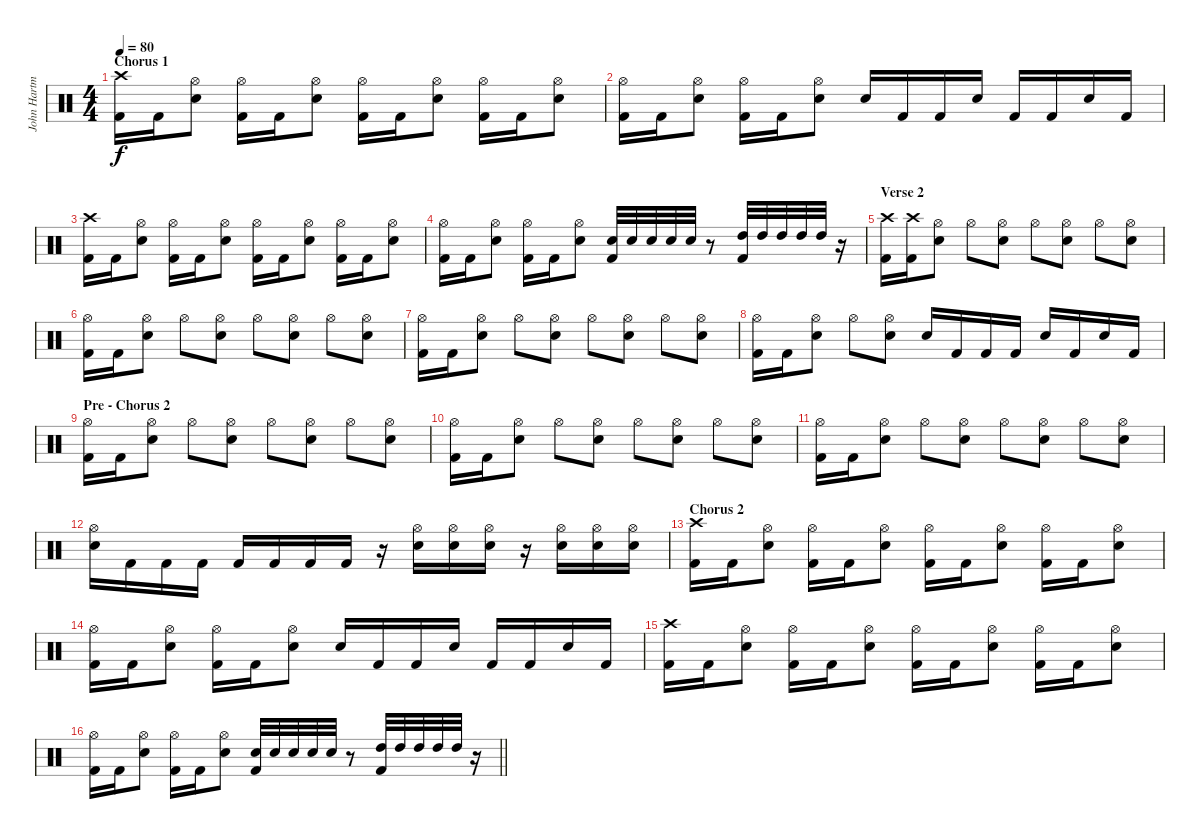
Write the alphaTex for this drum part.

\track ("John Hartman" "John Hartm") {instrument percussion}
\staff {score}
\articulation defaults
\ts (4 4)
\section ("" "Chorus 1")
\tempo 80
\clef neutral
\ks c
("Crash high (hit)" "Kick (hit) 2").16{dy f} "Kick (hit) 2".16 ("Hi-Hat (open)" "Electric Snare (hit)").8 ("Hi-Hat (open)" "Kick (hit) 2").16 "Kick (hit) 2".16 ("Hi-Hat (open)" "Electric Snare (hit)").8 ("Hi-Hat (open)" "Kick (hit) 2").16 "Kick (hit) 2".16 ("Hi-Hat (open)" "Electric Snare (hit)").8 ("Hi-Hat (open)" "Kick (hit) 2").16 "Kick (hit) 2".16 ("Hi-Hat (open)" "Electric Snare (hit)").8 |
("Hi-Hat (open)" "Kick (hit) 2").16 "Kick (hit) 2".16 ("Hi-Hat (open)" "Electric Snare (hit)").8 ("Hi-Hat (open)" "Kick (hit) 2").16 "Kick (hit) 2".16 ("Hi-Hat (open)" "Electric Snare (hit)").8 "Electric Snare (hit)".16 "Kick (hit) 2".16 "Kick (hit) 2".16 "Electric Snare (hit)".16 "Kick (hit) 2".16 "Kick (hit) 2".16 "Electric Snare (hit)".16 "Kick (hit) 2".16 |
("Crash high (hit)" "Kick (hit) 2").16 "Kick (hit) 2".16 ("Hi-Hat (open)" "Electric Snare (hit)").8 ("Hi-Hat (open)" "Kick (hit) 2").16 "Kick (hit) 2".16 ("Hi-Hat (open)" "Electric Snare (hit)").8 ("Hi-Hat (open)" "Kick (hit) 2").16 "Kick (hit) 2".16 ("Hi-Hat (open)" "Electric Snare (hit)").8 ("Hi-Hat (open)" "Kick (hit) 2").16 "Kick (hit) 2".16 ("Hi-Hat (open)" "Electric Snare (hit)").8 |
("Hi-Hat (open)" "Kick (hit) 2").16 "Kick (hit) 2".16 ("Hi-Hat (open)" "Electric Snare (hit)").8 ("Hi-Hat (open)" "Kick (hit) 2").16 "Kick (hit) 2".16 ("Hi-Hat (open)" "Electric Snare (hit)").8 ("Electric Snare (hit)" "Kick (hit) 2").32 "Electric Snare (hit)".32 "Electric Snare (hit)".32 "Electric Snare (hit)".32 "Electric Snare (hit)".32 r.8 ("Kick (hit) 2" "High Tom (hit)").32 "High Tom (hit)".32 "High Tom (hit)".32 "High Tom (hit)".32 "High Tom (hit)".32 r.16 |
\section ("" "Verse 2")
("Crash high (hit)" "Kick (hit) 2").16 ("Crash high (hit)" "Kick (hit) 2").16 ("Hi-Hat (open)" "Electric Snare (hit)").8 "Hi-Hat (open)".8 ("Hi-Hat (open)" "Electric Snare (hit)").8 "Hi-Hat (open)".8 ("Hi-Hat (open)" "Electric Snare (hit)").8 "Hi-Hat (open)".8 ("Hi-Hat (open)" "Electric Snare (hit)").8 |
("Hi-Hat (open)" "Kick (hit) 2").16 "Kick (hit) 2".16 ("Hi-Hat (open)" "Electric Snare (hit)").8 "Hi-Hat (open)".8 ("Hi-Hat (open)" "Electric Snare (hit)").8 "Hi-Hat (open)".8 ("Hi-Hat (open)" "Electric Snare (hit)").8 "Hi-Hat (open)".8 ("Hi-Hat (open)" "Electric Snare (hit)").8 |
("Hi-Hat (open)" "Kick (hit) 2").16 "Kick (hit) 2".16 ("Hi-Hat (open)" "Electric Snare (hit)").8 "Hi-Hat (open)".8 ("Hi-Hat (open)" "Electric Snare (hit)").8 "Hi-Hat (open)".8 ("Hi-Hat (open)" "Electric Snare (hit)").8 "Hi-Hat (open)".8 ("Hi-Hat (open)" "Electric Snare (hit)").8 |
("Hi-Hat (open)" "Kick (hit) 2").16 "Kick (hit) 2".16 ("Hi-Hat (open)" "Electric Snare (hit)").8 "Hi-Hat (open)".8 ("Hi-Hat (open)" "Electric Snare (hit)").8 "Electric Snare (hit)".16 "Kick (hit) 2".16 "Kick (hit) 2".16 "Kick (hit) 2".16 "Electric Snare (hit)".16 "Kick (hit) 2".16 "Electric Snare (hit)".16 "Kick (hit) 2".16 |
\section ("" "Pre - Chorus 2")
("Hi-Hat (open)" "Kick (hit) 2").16 "Kick (hit) 2".16 ("Hi-Hat (open)" "Electric Snare (hit)").8 "Hi-Hat (open)".8 ("Hi-Hat (open)" "Electric Snare (hit)").8 "Hi-Hat (open)".8 ("Hi-Hat (open)" "Electric Snare (hit)").8 "Hi-Hat (open)".8 ("Hi-Hat (open)" "Electric Snare (hit)").8 |
("Hi-Hat (open)" "Kick (hit) 2").16 "Kick (hit) 2".16 ("Hi-Hat (open)" "Electric Snare (hit)").8 "Hi-Hat (open)".8 ("Hi-Hat (open)" "Electric Snare (hit)").8 "Hi-Hat (open)".8 ("Hi-Hat (open)" "Electric Snare (hit)").8 "Hi-Hat (open)".8 ("Hi-Hat (open)" "Electric Snare (hit)").8 |
("Hi-Hat (open)" "Kick (hit) 2").16 "Kick (hit) 2".16 ("Hi-Hat (open)" "Electric Snare (hit)").8 "Hi-Hat (open)".8 ("Hi-Hat (open)" "Electric Snare (hit)").8 "Hi-Hat (open)".8 ("Hi-Hat (open)" "Electric Snare (hit)").8 "Hi-Hat (open)".8 ("Hi-Hat (open)" "Electric Snare (hit)").8 |
("Hi-Hat (open)" "Electric Snare (hit)").16 "Kick (hit) 2".16 "Kick (hit) 2".16 "Kick (hit) 2".16 "Kick (hit) 2".16 "Kick (hit) 2".16 "Kick (hit) 2".16 "Kick (hit) 2".16 r.16 ("Hi-Hat (open)" "Electric Snare (hit)").16 ("Hi-Hat (open)" "Electric Snare (hit)").16 ("Hi-Hat (open)" "Electric Snare (hit)").16 r.16 ("Hi-Hat (open)" "Electric Snare (hit)").16 ("Hi-Hat (open)" "Electric Snare (hit)").16 ("Hi-Hat (open)" "Electric Snare (hit)").16 |
\section ("" "Chorus 2")
("Crash high (hit)" "Kick (hit) 2").16 "Kick (hit) 2".16 ("Hi-Hat (open)" "Electric Snare (hit)").8 ("Hi-Hat (open)" "Kick (hit) 2").16 "Kick (hit) 2".16 ("Hi-Hat (open)" "Electric Snare (hit)").8 ("Hi-Hat (open)" "Kick (hit) 2").16 "Kick (hit) 2".16 ("Hi-Hat (open)" "Electric Snare (hit)").8 ("Hi-Hat (open)" "Kick (hit) 2").16 "Kick (hit) 2".16 ("Hi-Hat (open)" "Electric Snare (hit)").8 |
("Hi-Hat (open)" "Kick (hit) 2").16 "Kick (hit) 2".16 ("Hi-Hat (open)" "Electric Snare (hit)").8 ("Hi-Hat (open)" "Kick (hit) 2").16 "Kick (hit) 2".16 ("Hi-Hat (open)" "Electric Snare (hit)").8 "Electric Snare (hit)".16 "Kick (hit) 2".16 "Kick (hit) 2".16 "Electric Snare (hit)".16 "Kick (hit) 2".16 "Kick (hit) 2".16 "Electric Snare (hit)".16 "Kick (hit) 2".16 |
("Crash high (hit)" "Kick (hit) 2").16 "Kick (hit) 2".16 ("Hi-Hat (open)" "Electric Snare (hit)").8 ("Hi-Hat (open)" "Kick (hit) 2").16 "Kick (hit) 2".16 ("Hi-Hat (open)" "Electric Snare (hit)").8 ("Hi-Hat (open)" "Kick (hit) 2").16 "Kick (hit) 2".16 ("Hi-Hat (open)" "Electric Snare (hit)").8 ("Hi-Hat (open)" "Kick (hit) 2").16 "Kick (hit) 2".16 ("Hi-Hat (open)" "Electric Snare (hit)").8 |
\barLineRight lightlight
("Hi-Hat (open)" "Kick (hit) 2").16 "Kick (hit) 2".16 ("Hi-Hat (open)" "Electric Snare (hit)").8 ("Hi-Hat (open)" "Kick (hit) 2").16 "Kick (hit) 2".16 ("Hi-Hat (open)" "Electric Snare (hit)").8 ("Electric Snare (hit)" "Kick (hit) 2").32 "Electric Snare (hit)".32 "Electric Snare (hit)".32 "Electric Snare (hit)".32 "Electric Snare (hit)".32 r.8 ("Kick (hit) 2" "High Tom (hit)").32 "High Tom (hit)".32 "High Tom (hit)".32 "High Tom (hit)".32 "High Tom (hit)".32 r.16
